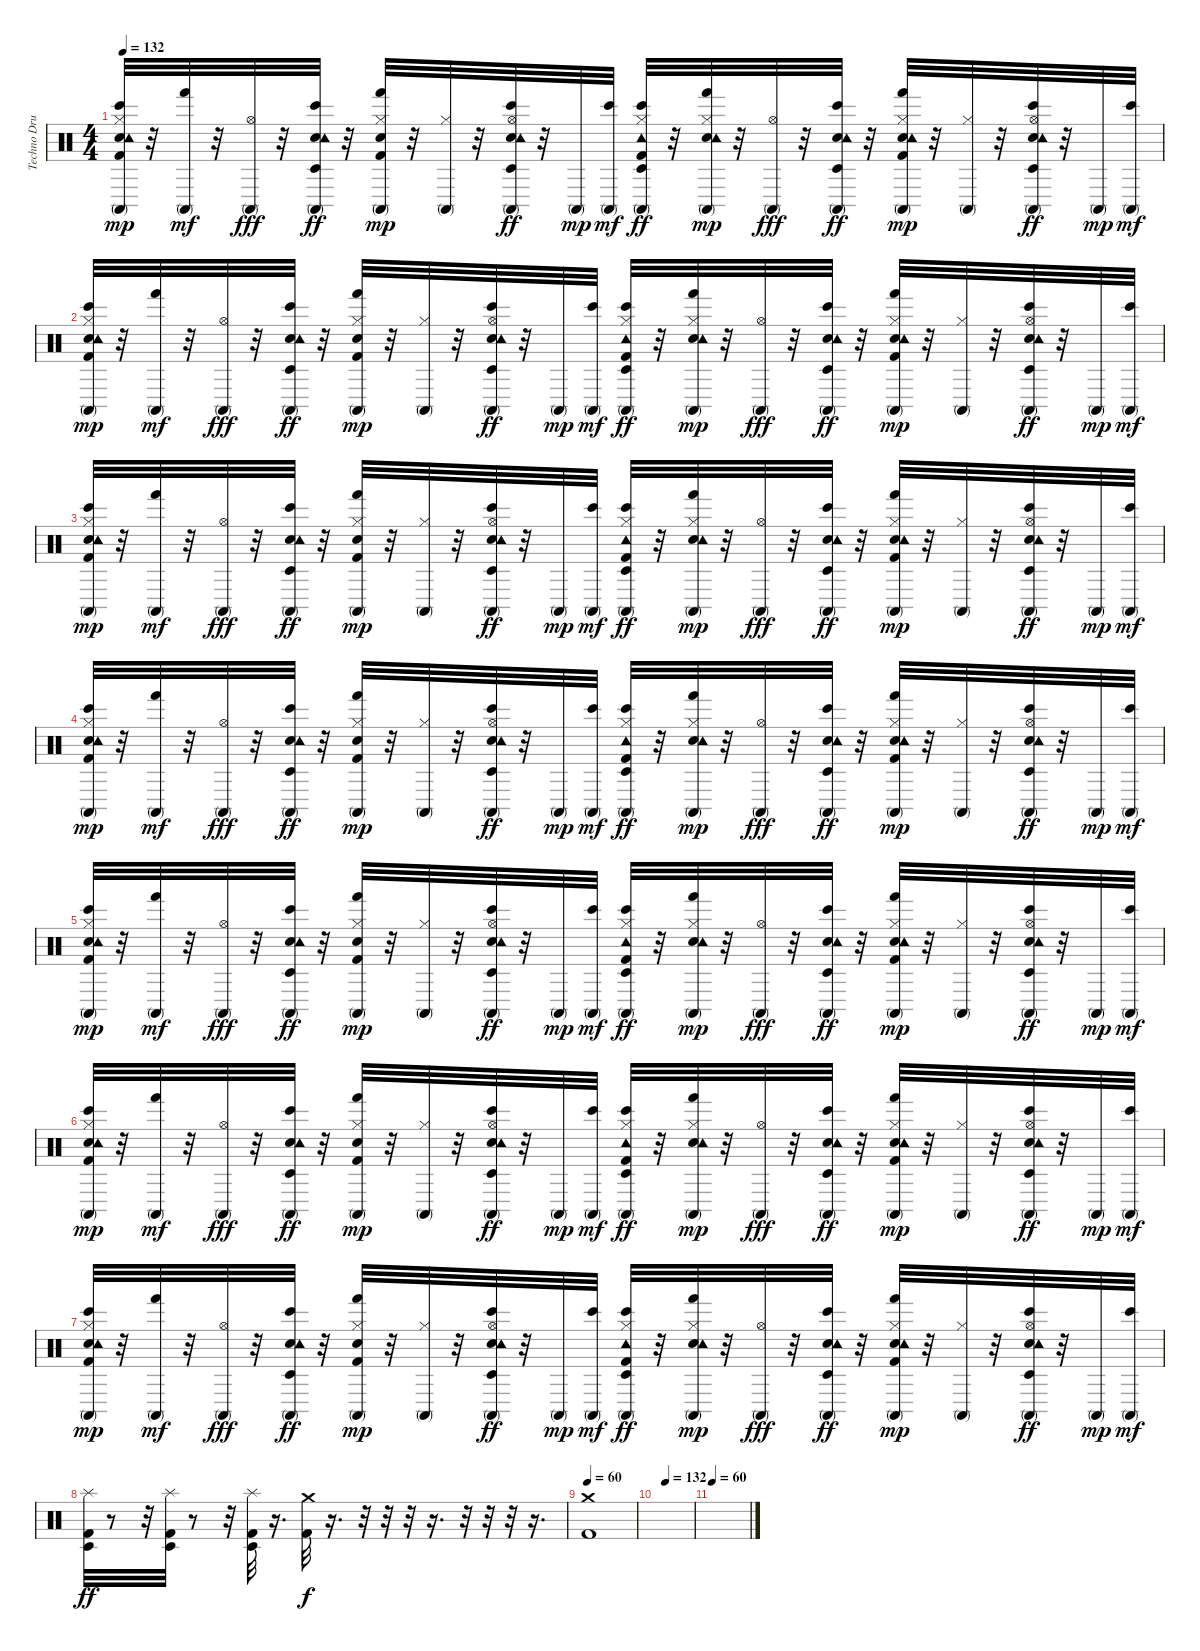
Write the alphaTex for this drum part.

\track ("Techno Drums" "Techno Dru") {instrument percussion}
\staff {score}
\articulation defaults
\ts (4 4)
\tempo 132
\clef neutral
\ks c
("Kick (hit) 2" "Hand Clap (hit)" "Tambourine (hit)" "Conga high (mute)" "Bongo High (hit)" "Hi-Hat (closed)").32{dy mp} r.32 ("Conga high (mute)" "Hand (hit)").32{dy mf} r.32 ("Conga high (mute)" "Hi-Hat (open)").32{dy fff} r.32 ("Hand Clap (hit)" "Tambourine (hit)" "Conga high (mute)" "Bongo High (hit)" "Timbale low (hit)").32{dy ff} r.32 ("Kick (hit) 2" "Hand Clap (hit)" "Conga high (mute)" "Hand (hit)" "Hi-Hat (closed)").32{dy mp} r.32 ("Conga high (mute)" "Hi-Hat (closed)").32 r.32 ("Hand Clap (hit)" "Tambourine (hit)" "Conga high (mute)" "Bongo High (hit)" "Hi-Hat (open)" "Timbale low (hit)").32{dy ff} r.32 "Conga high (mute)".32{dy mp} ("Conga high (mute)" "Bongo High (hit)").32{dy mf} ("Kick (hit) 2" "Tambourine (hit)" "Conga high (mute)" "Bongo High (hit)" "Hi-Hat (closed)" "Timbale low (hit)").32{dy ff} r.32 ("Hand Clap (hit)" "Tambourine (hit)" "Conga high (mute)" "Hand (hit)" "Hi-Hat (closed)").32{dy mp} r.32 ("Conga high (mute)" "Hi-Hat (open)").32{dy fff} r.32 ("Hand Clap (hit)" "Tambourine (hit)" "Conga high (mute)" "Bongo High (hit)" "Timbale low (hit)").32{dy ff} r.32 ("Kick (hit) 2" "Hand Clap (hit)" "Tambourine (hit)" "Conga high (mute)" "Hand (hit)" "Hi-Hat (closed)").32{dy mp} r.32 ("Conga high (mute)" "Hi-Hat (closed)").32 r.32 ("Hand Clap (hit)" "Tambourine (hit)" "Conga high (mute)" "Bongo High (hit)" "Hi-Hat (open)" "Timbale low (hit)").32{dy ff} r.32 "Conga high (mute)".32{dy mp} ("Conga high (mute)" "Bongo High (hit)").32{dy mf} |
("Kick (hit) 2" "Hand Clap (hit)" "Tambourine (hit)" "Conga high (mute)" "Bongo High (hit)" "Hi-Hat (closed)").32{dy mp} r.32 ("Conga high (mute)" "Hand (hit)").32{dy mf} r.32 ("Conga high (mute)" "Hi-Hat (open)").32{dy fff} r.32 ("Hand Clap (hit)" "Tambourine (hit)" "Conga high (mute)" "Bongo High (hit)" "Timbale low (hit)").32{dy ff} r.32 ("Kick (hit) 2" "Hand Clap (hit)" "Conga high (mute)" "Hand (hit)" "Hi-Hat (closed)").32{dy mp} r.32 ("Conga high (mute)" "Hi-Hat (closed)").32 r.32 ("Hand Clap (hit)" "Tambourine (hit)" "Conga high (mute)" "Bongo High (hit)" "Hi-Hat (open)" "Timbale low (hit)").32{dy ff} r.32 "Conga high (mute)".32{dy mp} ("Conga high (mute)" "Bongo High (hit)").32{dy mf} ("Kick (hit) 2" "Tambourine (hit)" "Conga high (mute)" "Bongo High (hit)" "Hi-Hat (closed)" "Timbale low (hit)").32{dy ff} r.32 ("Hand Clap (hit)" "Tambourine (hit)" "Conga high (mute)" "Hand (hit)" "Hi-Hat (closed)").32{dy mp} r.32 ("Conga high (mute)" "Hi-Hat (open)").32{dy fff} r.32 ("Hand Clap (hit)" "Tambourine (hit)" "Conga high (mute)" "Bongo High (hit)" "Timbale low (hit)").32{dy ff} r.32 ("Kick (hit) 2" "Hand Clap (hit)" "Tambourine (hit)" "Conga high (mute)" "Hand (hit)" "Hi-Hat (closed)").32{dy mp} r.32 ("Conga high (mute)" "Hi-Hat (closed)").32 r.32 ("Hand Clap (hit)" "Tambourine (hit)" "Conga high (mute)" "Bongo High (hit)" "Hi-Hat (open)" "Timbale low (hit)").32{dy ff} r.32 "Conga high (mute)".32{dy mp} ("Conga high (mute)" "Bongo High (hit)").32{dy mf} |
("Kick (hit) 2" "Hand Clap (hit)" "Tambourine (hit)" "Conga high (mute)" "Bongo High (hit)" "Hi-Hat (closed)").32{dy mp} r.32 ("Conga high (mute)" "Hand (hit)").32{dy mf} r.32 ("Conga high (mute)" "Hi-Hat (open)").32{dy fff} r.32 ("Hand Clap (hit)" "Tambourine (hit)" "Conga high (mute)" "Bongo High (hit)" "Timbale low (hit)").32{dy ff} r.32 ("Kick (hit) 2" "Hand Clap (hit)" "Conga high (mute)" "Hand (hit)" "Hi-Hat (closed)").32{dy mp} r.32 ("Conga high (mute)" "Hi-Hat (closed)").32 r.32 ("Hand Clap (hit)" "Tambourine (hit)" "Conga high (mute)" "Bongo High (hit)" "Hi-Hat (open)" "Timbale low (hit)").32{dy ff} r.32 "Conga high (mute)".32{dy mp} ("Conga high (mute)" "Bongo High (hit)").32{dy mf} ("Kick (hit) 2" "Tambourine (hit)" "Conga high (mute)" "Bongo High (hit)" "Hi-Hat (closed)" "Timbale low (hit)").32{dy ff} r.32 ("Hand Clap (hit)" "Tambourine (hit)" "Conga high (mute)" "Hand (hit)" "Hi-Hat (closed)").32{dy mp} r.32 ("Conga high (mute)" "Hi-Hat (open)").32{dy fff} r.32 ("Hand Clap (hit)" "Tambourine (hit)" "Conga high (mute)" "Bongo High (hit)" "Timbale low (hit)").32{dy ff} r.32 ("Kick (hit) 2" "Hand Clap (hit)" "Tambourine (hit)" "Conga high (mute)" "Hand (hit)" "Hi-Hat (closed)").32{dy mp} r.32 ("Conga high (mute)" "Hi-Hat (closed)").32 r.32 ("Hand Clap (hit)" "Tambourine (hit)" "Conga high (mute)" "Bongo High (hit)" "Hi-Hat (open)" "Timbale low (hit)").32{dy ff} r.32 "Conga high (mute)".32{dy mp} ("Conga high (mute)" "Bongo High (hit)").32{dy mf} |
("Kick (hit) 2" "Hand Clap (hit)" "Tambourine (hit)" "Conga high (mute)" "Bongo High (hit)" "Hi-Hat (closed)").32{dy mp} r.32 ("Conga high (mute)" "Hand (hit)").32{dy mf} r.32 ("Conga high (mute)" "Hi-Hat (open)").32{dy fff} r.32 ("Hand Clap (hit)" "Tambourine (hit)" "Conga high (mute)" "Bongo High (hit)" "Timbale low (hit)").32{dy ff} r.32 ("Kick (hit) 2" "Hand Clap (hit)" "Conga high (mute)" "Hand (hit)" "Hi-Hat (closed)").32{dy mp} r.32 ("Conga high (mute)" "Hi-Hat (closed)").32 r.32 ("Hand Clap (hit)" "Tambourine (hit)" "Conga high (mute)" "Bongo High (hit)" "Hi-Hat (open)" "Timbale low (hit)").32{dy ff} r.32 "Conga high (mute)".32{dy mp} ("Conga high (mute)" "Bongo High (hit)").32{dy mf} ("Kick (hit) 2" "Tambourine (hit)" "Conga high (mute)" "Bongo High (hit)" "Hi-Hat (closed)" "Timbale low (hit)").32{dy ff} r.32 ("Hand Clap (hit)" "Tambourine (hit)" "Conga high (mute)" "Hand (hit)" "Hi-Hat (closed)").32{dy mp} r.32 ("Conga high (mute)" "Hi-Hat (open)").32{dy fff} r.32 ("Hand Clap (hit)" "Tambourine (hit)" "Conga high (mute)" "Bongo High (hit)" "Timbale low (hit)").32{dy ff} r.32 ("Kick (hit) 2" "Hand Clap (hit)" "Tambourine (hit)" "Conga high (mute)" "Hand (hit)" "Hi-Hat (closed)").32{dy mp} r.32 ("Conga high (mute)" "Hi-Hat (closed)").32 r.32 ("Hand Clap (hit)" "Tambourine (hit)" "Conga high (mute)" "Bongo High (hit)" "Hi-Hat (open)" "Timbale low (hit)").32{dy ff} r.32 "Conga high (mute)".32{dy mp} ("Conga high (mute)" "Bongo High (hit)").32{dy mf} |
("Kick (hit) 2" "Hand Clap (hit)" "Tambourine (hit)" "Conga high (mute)" "Bongo High (hit)" "Hi-Hat (closed)").32{dy mp} r.32 ("Conga high (mute)" "Hand (hit)").32{dy mf} r.32 ("Conga high (mute)" "Hi-Hat (open)").32{dy fff} r.32 ("Hand Clap (hit)" "Tambourine (hit)" "Conga high (mute)" "Bongo High (hit)" "Timbale low (hit)").32{dy ff} r.32 ("Kick (hit) 2" "Hand Clap (hit)" "Conga high (mute)" "Hand (hit)" "Hi-Hat (closed)").32{dy mp} r.32 ("Conga high (mute)" "Hi-Hat (closed)").32 r.32 ("Hand Clap (hit)" "Tambourine (hit)" "Conga high (mute)" "Bongo High (hit)" "Hi-Hat (open)" "Timbale low (hit)").32{dy ff} r.32 "Conga high (mute)".32{dy mp} ("Conga high (mute)" "Bongo High (hit)").32{dy mf} ("Kick (hit) 2" "Tambourine (hit)" "Conga high (mute)" "Bongo High (hit)" "Hi-Hat (closed)" "Timbale low (hit)").32{dy ff} r.32 ("Hand Clap (hit)" "Tambourine (hit)" "Conga high (mute)" "Hand (hit)" "Hi-Hat (closed)").32{dy mp} r.32 ("Conga high (mute)" "Hi-Hat (open)").32{dy fff} r.32 ("Hand Clap (hit)" "Tambourine (hit)" "Conga high (mute)" "Bongo High (hit)" "Timbale low (hit)").32{dy ff} r.32 ("Kick (hit) 2" "Hand Clap (hit)" "Tambourine (hit)" "Conga high (mute)" "Hand (hit)" "Hi-Hat (closed)").32{dy mp} r.32 ("Conga high (mute)" "Hi-Hat (closed)").32 r.32 ("Hand Clap (hit)" "Tambourine (hit)" "Conga high (mute)" "Bongo High (hit)" "Hi-Hat (open)" "Timbale low (hit)").32{dy ff} r.32 "Conga high (mute)".32{dy mp} ("Conga high (mute)" "Bongo High (hit)").32{dy mf} |
("Kick (hit) 2" "Hand Clap (hit)" "Tambourine (hit)" "Conga high (mute)" "Bongo High (hit)" "Hi-Hat (closed)").32{dy mp} r.32 ("Conga high (mute)" "Hand (hit)").32{dy mf} r.32 ("Conga high (mute)" "Hi-Hat (open)").32{dy fff} r.32 ("Hand Clap (hit)" "Tambourine (hit)" "Conga high (mute)" "Bongo High (hit)" "Timbale low (hit)").32{dy ff} r.32 ("Kick (hit) 2" "Hand Clap (hit)" "Conga high (mute)" "Hand (hit)" "Hi-Hat (closed)").32{dy mp} r.32 ("Conga high (mute)" "Hi-Hat (closed)").32 r.32 ("Hand Clap (hit)" "Tambourine (hit)" "Conga high (mute)" "Bongo High (hit)" "Hi-Hat (open)" "Timbale low (hit)").32{dy ff} r.32 "Conga high (mute)".32{dy mp} ("Conga high (mute)" "Bongo High (hit)").32{dy mf} ("Kick (hit) 2" "Tambourine (hit)" "Conga high (mute)" "Bongo High (hit)" "Hi-Hat (closed)" "Timbale low (hit)").32{dy ff} r.32 ("Hand Clap (hit)" "Tambourine (hit)" "Conga high (mute)" "Hand (hit)" "Hi-Hat (closed)").32{dy mp} r.32 ("Conga high (mute)" "Hi-Hat (open)").32{dy fff} r.32 ("Hand Clap (hit)" "Tambourine (hit)" "Conga high (mute)" "Bongo High (hit)" "Timbale low (hit)").32{dy ff} r.32 ("Kick (hit) 2" "Hand Clap (hit)" "Tambourine (hit)" "Conga high (mute)" "Hand (hit)" "Hi-Hat (closed)").32{dy mp} r.32 ("Conga high (mute)" "Hi-Hat (closed)").32 r.32 ("Hand Clap (hit)" "Tambourine (hit)" "Conga high (mute)" "Bongo High (hit)" "Hi-Hat (open)" "Timbale low (hit)").32{dy ff} r.32 "Conga high (mute)".32{dy mp} ("Conga high (mute)" "Bongo High (hit)").32{dy mf} |
("Kick (hit) 2" "Hand Clap (hit)" "Tambourine (hit)" "Conga high (mute)" "Bongo High (hit)" "Hi-Hat (closed)").32{dy mp} r.32 ("Conga high (mute)" "Hand (hit)").32{dy mf} r.32 ("Conga high (mute)" "Hi-Hat (open)").32{dy fff} r.32 ("Hand Clap (hit)" "Tambourine (hit)" "Conga high (mute)" "Bongo High (hit)" "Timbale low (hit)").32{dy ff} r.32 ("Kick (hit) 2" "Hand Clap (hit)" "Conga high (mute)" "Hand (hit)" "Hi-Hat (closed)").32{dy mp} r.32 ("Conga high (mute)" "Hi-Hat (closed)").32 r.32 ("Hand Clap (hit)" "Tambourine (hit)" "Conga high (mute)" "Bongo High (hit)" "Hi-Hat (open)" "Timbale low (hit)").32{dy ff} r.32 "Conga high (mute)".32{dy mp} ("Conga high (mute)" "Bongo High (hit)").32{dy mf} ("Kick (hit) 2" "Tambourine (hit)" "Conga high (mute)" "Bongo High (hit)" "Hi-Hat (closed)" "Timbale low (hit)").32{dy ff} r.32 ("Hand Clap (hit)" "Tambourine (hit)" "Conga high (mute)" "Hand (hit)" "Hi-Hat (closed)").32{dy mp} r.32 ("Conga high (mute)" "Hi-Hat (open)").32{dy fff} r.32 ("Hand Clap (hit)" "Tambourine (hit)" "Conga high (mute)" "Bongo High (hit)" "Timbale low (hit)").32{dy ff} r.32 ("Kick (hit) 2" "Hand Clap (hit)" "Tambourine (hit)" "Conga high (mute)" "Hand (hit)" "Hi-Hat (closed)").32{dy mp} r.32 ("Conga high (mute)" "Hi-Hat (closed)").32 r.32 ("Hand Clap (hit)" "Tambourine (hit)" "Conga high (mute)" "Bongo High (hit)" "Hi-Hat (open)" "Timbale low (hit)").32{dy ff} r.32 "Conga high (mute)".32{dy mp} ("Conga high (mute)" "Bongo High (hit)").32{dy mf} |
("Kick (hit) 2" "Timbale low (hit)" "Splash (hit)").32{dy ff} r.8 r.32 ("Kick (hit) 2" "Timbale low (hit)" "Splash (hit)").32 r.8 r.32 ("Kick (hit) 2" "Timbale low (hit)" "Splash (hit)").32 r.16{d} ("Crash medium (hit)" "Kick (hit) 2").32{dy f} r.16{d} r.32 r.32 r.32 r.16{d} r.32 r.32 r.32 r.16{d} |
\tempo 60
("Crash medium (hit)" "Kick (hit) 2").1 |
\tempo (132 0.25)
|
\tempo 60
